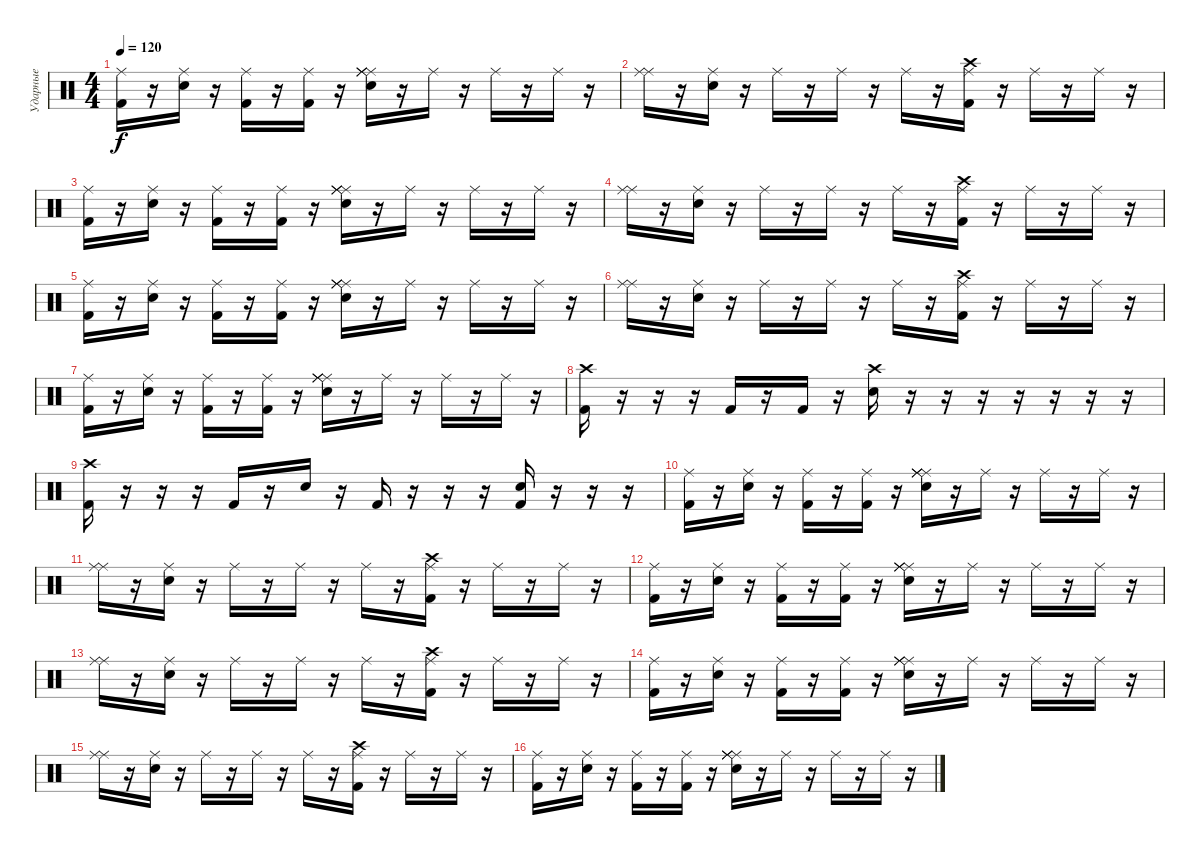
\track ("Ударные" "Ударные") {instrument percussion}
\staff {score}
\articulation defaults
\ts (4 4)
\tempo 120
\clef neutral
\ks c
("Ride (middle)" "Kick (hit) 2").16{dy f} r.16 ("Ride (middle)" "Snare (hit) 2").16 r.16 ("Ride (middle)" "Kick (hit) 2").16 r.16 ("Ride (middle)" "Kick (hit) 2").16 r.16 ("Ride (middle)" "Ride (middle)" "Ride (middle)" "Ride (middle)" "Snare (hit) 2").16 r.16 "Ride (middle)".16 r.16 "Ride (middle)".16 r.16 "Ride (middle)".16 r.16 |
("Ride (middle)" "Ride (middle)").16 r.16 ("Ride (middle)" "Snare (hit) 2").16 r.16 "Ride (middle)".16 r.16 "Ride (middle)".16 r.16 "Ride (middle)".16 r.16 ("Ride (middle)" "Kick (hit) 2" "Crash high (hit)").16 r.16 "Ride (middle)".16 r.16 "Ride (middle)".16 r.16 |
("Ride (middle)" "Kick (hit) 2").16 r.16 ("Ride (middle)" "Snare (hit) 2").16 r.16 ("Ride (middle)" "Kick (hit) 2").16 r.16 ("Ride (middle)" "Kick (hit) 2").16 r.16 ("Ride (middle)" "Ride (middle)" "Ride (middle)" "Ride (middle)" "Snare (hit) 2").16 r.16 "Ride (middle)".16 r.16 "Ride (middle)".16 r.16 "Ride (middle)".16 r.16 |
("Ride (middle)" "Ride (middle)").16 r.16 ("Ride (middle)" "Snare (hit) 2").16 r.16 "Ride (middle)".16 r.16 "Ride (middle)".16 r.16 "Ride (middle)".16 r.16 ("Ride (middle)" "Kick (hit) 2" "Crash high (hit)").16 r.16 "Ride (middle)".16 r.16 "Ride (middle)".16 r.16 |
("Ride (middle)" "Kick (hit) 2").16 r.16 ("Ride (middle)" "Snare (hit) 2").16 r.16 ("Ride (middle)" "Kick (hit) 2").16 r.16 ("Ride (middle)" "Kick (hit) 2").16 r.16 ("Ride (middle)" "Ride (middle)" "Ride (middle)" "Ride (middle)" "Snare (hit) 2").16 r.16 "Ride (middle)".16 r.16 "Ride (middle)".16 r.16 "Ride (middle)".16 r.16 |
("Ride (middle)" "Ride (middle)").16 r.16 ("Ride (middle)" "Snare (hit) 2").16 r.16 "Ride (middle)".16 r.16 "Ride (middle)".16 r.16 "Ride (middle)".16 r.16 ("Ride (middle)" "Kick (hit) 2" "Crash high (hit)").16 r.16 "Ride (middle)".16 r.16 "Ride (middle)".16 r.16 |
("Ride (middle)" "Kick (hit) 2").16 r.16 ("Ride (middle)" "Snare (hit) 2").16 r.16 ("Ride (middle)" "Kick (hit) 2").16 r.16 ("Ride (middle)" "Kick (hit) 2").16 r.16 ("Ride (middle)" "Ride (middle)" "Ride (middle)" "Ride (middle)" "Snare (hit) 2").16 r.16 "Ride (middle)".16 r.16 "Ride (middle)".16 r.16 "Ride (middle)".16 r.16 |
("Kick (hit) 2" "Crash high (hit)").16 r.16 r.16 r.16 "Kick (hit) 2".16 r.16 "Kick (hit) 2".16 r.16 ("Snare (hit) 2" "Crash high (hit)").16 r.16 r.16 r.16 r.16 r.16 r.16 r.16 |
("Kick (hit) 2" "Crash high (hit)").16 r.16 r.16 r.16 "Kick (hit) 2".16 r.16 "Snare (hit) 2".16 r.16 "Kick (hit) 2".16 r.16 r.16 r.16 ("Kick (hit) 2" "Snare (hit) 2").16 r.16 r.16 r.16 |
("Ride (middle)" "Kick (hit) 2").16 r.16 ("Ride (middle)" "Snare (hit) 2").16 r.16 ("Ride (middle)" "Kick (hit) 2").16 r.16 ("Ride (middle)" "Kick (hit) 2").16 r.16 ("Ride (middle)" "Ride (middle)" "Ride (middle)" "Ride (middle)" "Snare (hit) 2").16 r.16 "Ride (middle)".16 r.16 "Ride (middle)".16 r.16 "Ride (middle)".16 r.16 |
("Ride (middle)" "Ride (middle)").16 r.16 ("Ride (middle)" "Snare (hit) 2").16 r.16 "Ride (middle)".16 r.16 "Ride (middle)".16 r.16 "Ride (middle)".16 r.16 ("Ride (middle)" "Kick (hit) 2" "Crash high (hit)").16 r.16 "Ride (middle)".16 r.16 "Ride (middle)".16 r.16 |
("Ride (middle)" "Kick (hit) 2").16 r.16 ("Ride (middle)" "Snare (hit) 2").16 r.16 ("Ride (middle)" "Kick (hit) 2").16 r.16 ("Ride (middle)" "Kick (hit) 2").16 r.16 ("Ride (middle)" "Ride (middle)" "Ride (middle)" "Ride (middle)" "Snare (hit) 2").16 r.16 "Ride (middle)".16 r.16 "Ride (middle)".16 r.16 "Ride (middle)".16 r.16 |
("Ride (middle)" "Ride (middle)").16 r.16 ("Ride (middle)" "Snare (hit) 2").16 r.16 "Ride (middle)".16 r.16 "Ride (middle)".16 r.16 "Ride (middle)".16 r.16 ("Ride (middle)" "Kick (hit) 2" "Crash high (hit)").16 r.16 "Ride (middle)".16 r.16 "Ride (middle)".16 r.16 |
("Ride (middle)" "Kick (hit) 2").16 r.16 ("Ride (middle)" "Snare (hit) 2").16 r.16 ("Ride (middle)" "Kick (hit) 2").16 r.16 ("Ride (middle)" "Kick (hit) 2").16 r.16 ("Ride (middle)" "Ride (middle)" "Ride (middle)" "Ride (middle)" "Snare (hit) 2").16 r.16 "Ride (middle)".16 r.16 "Ride (middle)".16 r.16 "Ride (middle)".16 r.16 |
("Ride (middle)" "Ride (middle)").16 r.16 ("Ride (middle)" "Snare (hit) 2").16 r.16 "Ride (middle)".16 r.16 "Ride (middle)".16 r.16 "Ride (middle)".16 r.16 ("Ride (middle)" "Kick (hit) 2" "Crash high (hit)").16 r.16 "Ride (middle)".16 r.16 "Ride (middle)".16 r.16 |
("Ride (middle)" "Kick (hit) 2").16 r.16 ("Ride (middle)" "Snare (hit) 2").16 r.16 ("Ride (middle)" "Kick (hit) 2").16 r.16 ("Ride (middle)" "Kick (hit) 2").16 r.16 ("Ride (middle)" "Ride (middle)" "Ride (middle)" "Ride (middle)" "Snare (hit) 2").16 r.16 "Ride (middle)".16 r.16 "Ride (middle)".16 r.16 "Ride (middle)".16 r.16
